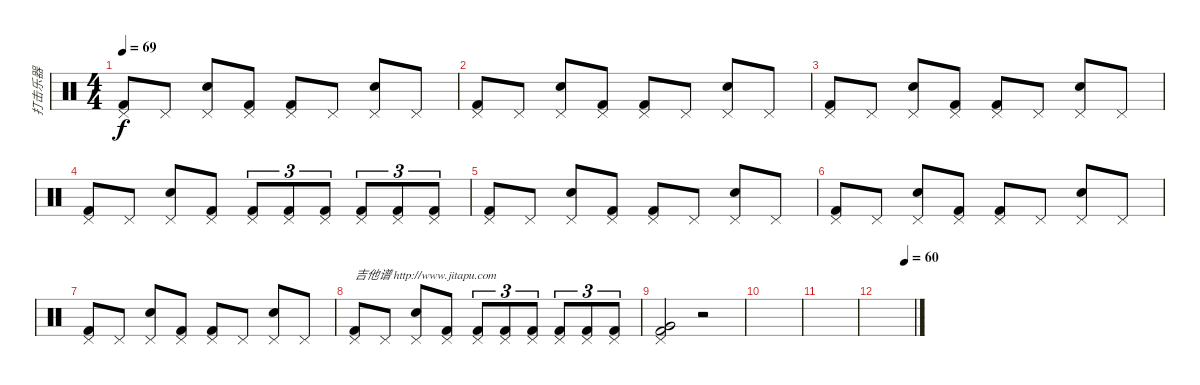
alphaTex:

\track ("打击乐器" "打击乐器") {instrument percussion}
\staff {score}
\articulation defaults
\ts (4 4)
\tempo 69
\clef neutral
\ks c
("Kick (hit) 2" "Pedal Hi-Hat (hit)").8{dy f} "Pedal Hi-Hat (hit)".8 ("Electric Snare (hit)" "Pedal Hi-Hat (hit)").8 ("Kick (hit) 2" "Pedal Hi-Hat (hit)").8 ("Kick (hit) 2" "Pedal Hi-Hat (hit)").8 "Pedal Hi-Hat (hit)".8 ("Electric Snare (hit)" "Pedal Hi-Hat (hit)").8 "Pedal Hi-Hat (hit)".8 |
("Kick (hit) 2" "Pedal Hi-Hat (hit)").8 "Pedal Hi-Hat (hit)".8 ("Electric Snare (hit)" "Pedal Hi-Hat (hit)").8 ("Kick (hit) 2" "Pedal Hi-Hat (hit)").8 ("Kick (hit) 2" "Pedal Hi-Hat (hit)").8 "Pedal Hi-Hat (hit)".8 ("Electric Snare (hit)" "Pedal Hi-Hat (hit)").8 "Pedal Hi-Hat (hit)".8 |
("Kick (hit) 2" "Pedal Hi-Hat (hit)").8 "Pedal Hi-Hat (hit)".8 ("Electric Snare (hit)" "Pedal Hi-Hat (hit)").8 ("Kick (hit) 2" "Pedal Hi-Hat (hit)").8 ("Kick (hit) 2" "Pedal Hi-Hat (hit)").8 "Pedal Hi-Hat (hit)".8 ("Electric Snare (hit)" "Pedal Hi-Hat (hit)").8 "Pedal Hi-Hat (hit)".8 |
("Kick (hit) 2" "Pedal Hi-Hat (hit)").8 "Pedal Hi-Hat (hit)".8 ("Electric Snare (hit)" "Pedal Hi-Hat (hit)").8 ("Kick (hit) 2" "Pedal Hi-Hat (hit)").8 ("Kick (hit) 2" "Pedal Hi-Hat (hit)").8{tu (3 2)} ("Kick (hit) 2" "Pedal Hi-Hat (hit)").8{tu (3 2)} ("Kick (hit) 2" "Pedal Hi-Hat (hit)").8{tu (3 2)} ("Kick (hit) 2" "Pedal Hi-Hat (hit)").8{tu (3 2)} ("Kick (hit) 2" "Pedal Hi-Hat (hit)").8{tu (3 2)} ("Kick (hit) 2" "Pedal Hi-Hat (hit)").8{tu (3 2)} |
("Kick (hit) 2" "Pedal Hi-Hat (hit)").8 "Pedal Hi-Hat (hit)".8 ("Electric Snare (hit)" "Pedal Hi-Hat (hit)").8 ("Kick (hit) 2" "Pedal Hi-Hat (hit)").8 ("Kick (hit) 2" "Pedal Hi-Hat (hit)").8 "Pedal Hi-Hat (hit)".8 ("Electric Snare (hit)" "Pedal Hi-Hat (hit)").8 "Pedal Hi-Hat (hit)".8 |
("Kick (hit) 2" "Pedal Hi-Hat (hit)").8 "Pedal Hi-Hat (hit)".8 ("Electric Snare (hit)" "Pedal Hi-Hat (hit)").8 ("Kick (hit) 2" "Pedal Hi-Hat (hit)").8 ("Kick (hit) 2" "Pedal Hi-Hat (hit)").8 "Pedal Hi-Hat (hit)".8 ("Electric Snare (hit)" "Pedal Hi-Hat (hit)").8 "Pedal Hi-Hat (hit)".8 |
("Kick (hit) 2" "Pedal Hi-Hat (hit)").8 "Pedal Hi-Hat (hit)".8 ("Electric Snare (hit)" "Pedal Hi-Hat (hit)").8 ("Kick (hit) 2" "Pedal Hi-Hat (hit)").8 ("Kick (hit) 2" "Pedal Hi-Hat (hit)").8 "Pedal Hi-Hat (hit)".8 ("Electric Snare (hit)" "Pedal Hi-Hat (hit)").8 "Pedal Hi-Hat (hit)".8 |
("Kick (hit) 2" "Pedal Hi-Hat (hit)").8{txt "吉他谱 http://www.jitapu.com"} "Pedal Hi-Hat (hit)".8 ("Electric Snare (hit)" "Pedal Hi-Hat (hit)").8 ("Kick (hit) 2" "Pedal Hi-Hat (hit)").8 ("Kick (hit) 2" "Pedal Hi-Hat (hit)").8{tu (3 2)} ("Kick (hit) 2" "Pedal Hi-Hat (hit)").8{tu (3 2)} ("Kick (hit) 2" "Pedal Hi-Hat (hit)").8{tu (3 2)} ("Kick (hit) 2" "Pedal Hi-Hat (hit)").8{tu (3 2)} ("Kick (hit) 2" "Pedal Hi-Hat (hit)").8{tu (3 2)} ("Kick (hit) 2" "Pedal Hi-Hat (hit)").8{tu (3 2)} |
("Kick (hit) 2" "Very Low Tom (hit)" "Pedal Hi-Hat (hit)").2 r.2 |
|
|
\tempo (60 0.75)
